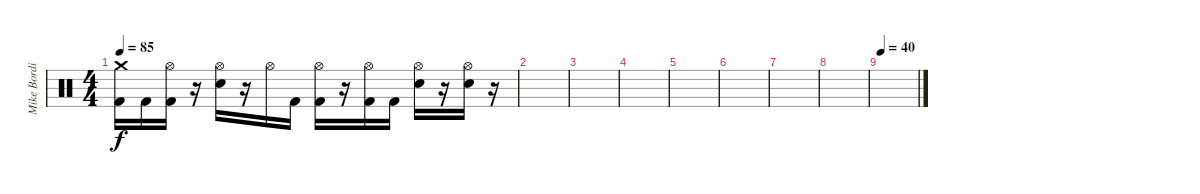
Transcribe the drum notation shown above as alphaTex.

\track ("Mike Bordin (Drums)" "Mike Bordi") {instrument percussion}
\staff {score}
\articulation defaults
\ts (4 4)
\tempo 85
\clef neutral
\ks c
("Crash medium (hit)" "Kick (hit) 2").16{dy f} "Kick (hit) 2".16 ("Hi-Hat (open)" "Kick (hit) 2").16 r.16 ("Hi-Hat (open)" "Snare (hit) 2").16 r.16 "Hi-Hat (open)".16 "Kick (hit) 2".16 ("Hi-Hat (open)" "Kick (hit) 2").16 r.16 ("Hi-Hat (open)" "Kick (hit) 2").16 "Kick (hit) 2".16 ("Hi-Hat (open)" "Snare (hit) 2").16 r.16 ("Hi-Hat (open)" "Snare (hit) 2").16 r.16 |
|
|
|
|
|
|
|
\tempo 40
